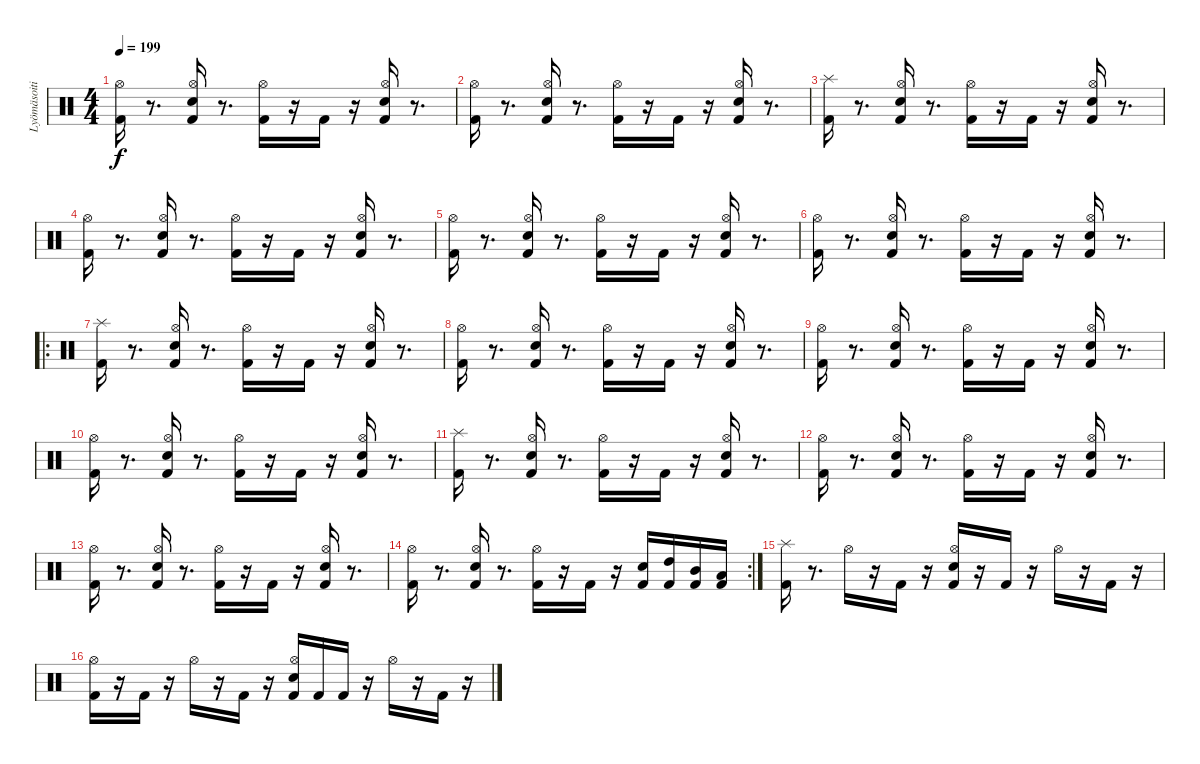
\track ("Lyömäsoitin" "Lyömäsoiti") {instrument percussion}
\staff {score}
\articulation defaults
\ts (4 4)
\tempo 199
\clef neutral
\ks c
("Kick (hit) 2" "Hi-Hat (open)").16{dy f} r.8{d} ("Kick (hit) 2" "Hi-Hat (open)" "Snare (hit) 2").16 r.8{d} ("Kick (hit) 2" "Hi-Hat (open)").16 r.16 "Kick (hit) 2".16 r.16 ("Kick (hit) 2" "Hi-Hat (open)" "Snare (hit) 2").16 r.8{d} |
("Kick (hit) 2" "Hi-Hat (open)").16 r.8{d} ("Kick (hit) 2" "Hi-Hat (open)" "Snare (hit) 2").16 r.8{d} ("Kick (hit) 2" "Hi-Hat (open)").16 r.16 "Kick (hit) 2".16 r.16 ("Kick (hit) 2" "Hi-Hat (open)" "Snare (hit) 2").16 r.8{d} |
("Kick (hit) 2" "Splash (hit)").16 r.8{d} ("Kick (hit) 2" "Hi-Hat (open)" "Snare (hit) 2").16 r.8{d} ("Kick (hit) 2" "Hi-Hat (open)").16 r.16 "Kick (hit) 2".16 r.16 ("Kick (hit) 2" "Hi-Hat (open)" "Snare (hit) 2").16 r.8{d} |
("Kick (hit) 2" "Hi-Hat (open)").16 r.8{d} ("Kick (hit) 2" "Hi-Hat (open)" "Snare (hit) 2").16 r.8{d} ("Kick (hit) 2" "Hi-Hat (open)").16 r.16 "Kick (hit) 2".16 r.16 ("Kick (hit) 2" "Hi-Hat (open)" "Snare (hit) 2").16 r.8{d} |
("Kick (hit) 2" "Hi-Hat (open)").16 r.8{d} ("Kick (hit) 2" "Hi-Hat (open)" "Snare (hit) 2").16 r.8{d} ("Kick (hit) 2" "Hi-Hat (open)").16 r.16 "Kick (hit) 2".16 r.16 ("Kick (hit) 2" "Hi-Hat (open)" "Snare (hit) 2").16 r.8{d} |
("Kick (hit) 2" "Hi-Hat (open)").16 r.8{d} ("Kick (hit) 2" "Hi-Hat (open)" "Snare (hit) 2").16 r.8{d} ("Kick (hit) 2" "Hi-Hat (open)").16 r.16 "Kick (hit) 2".16 r.16 ("Kick (hit) 2" "Hi-Hat (open)" "Snare (hit) 2").16 r.8{d} |
\ro
("Kick (hit) 2" "Splash (hit)").16 r.8{d} ("Kick (hit) 2" "Hi-Hat (open)" "Snare (hit) 2").16 r.8{d} ("Kick (hit) 2" "Hi-Hat (open)").16 r.16 "Kick (hit) 2".16 r.16 ("Kick (hit) 2" "Hi-Hat (open)" "Snare (hit) 2").16 r.8{d} |
("Kick (hit) 2" "Hi-Hat (open)").16 r.8{d} ("Kick (hit) 2" "Hi-Hat (open)" "Snare (hit) 2").16 r.8{d} ("Kick (hit) 2" "Hi-Hat (open)").16 r.16 "Kick (hit) 2".16 r.16 ("Kick (hit) 2" "Hi-Hat (open)" "Snare (hit) 2").16 r.8{d} |
("Kick (hit) 2" "Hi-Hat (open)").16 r.8{d} ("Kick (hit) 2" "Hi-Hat (open)" "Snare (hit) 2").16 r.8{d} ("Kick (hit) 2" "Hi-Hat (open)").16 r.16 "Kick (hit) 2".16 r.16 ("Kick (hit) 2" "Hi-Hat (open)" "Snare (hit) 2").16 r.8{d} |
("Kick (hit) 2" "Hi-Hat (open)").16 r.8{d} ("Kick (hit) 2" "Hi-Hat (open)" "Snare (hit) 2").16 r.8{d} ("Kick (hit) 2" "Hi-Hat (open)").16 r.16 "Kick (hit) 2".16 r.16 ("Kick (hit) 2" "Hi-Hat (open)" "Snare (hit) 2").16 r.8{d} |
("Kick (hit) 2" "Splash (hit)").16 r.8{d} ("Kick (hit) 2" "Hi-Hat (open)" "Snare (hit) 2").16 r.8{d} ("Kick (hit) 2" "Hi-Hat (open)").16 r.16 "Kick (hit) 2".16 r.16 ("Kick (hit) 2" "Hi-Hat (open)" "Snare (hit) 2").16 r.8{d} |
("Kick (hit) 2" "Hi-Hat (open)").16 r.8{d} ("Kick (hit) 2" "Hi-Hat (open)" "Snare (hit) 2").16 r.8{d} ("Kick (hit) 2" "Hi-Hat (open)").16 r.16 "Kick (hit) 2".16 r.16 ("Kick (hit) 2" "Hi-Hat (open)" "Snare (hit) 2").16 r.8{d} |
("Kick (hit) 2" "Hi-Hat (open)").16 r.8{d} ("Kick (hit) 2" "Hi-Hat (open)" "Snare (hit) 2").16 r.8{d} ("Kick (hit) 2" "Hi-Hat (open)").16 r.16 "Kick (hit) 2".16 r.16 ("Kick (hit) 2" "Hi-Hat (open)" "Snare (hit) 2").16 r.8{d} |
\rc 2
("Kick (hit) 2" "Hi-Hat (open)").16 r.8{d} ("Kick (hit) 2" "Hi-Hat (open)" "Snare (hit) 2").16 r.8{d} ("Kick (hit) 2" "Hi-Hat (open)").16 r.16 "Kick (hit) 2".16 r.16 ("Kick (hit) 2" "Snare (hit) 2").16 ("Kick (hit) 2" "High Tom (hit)").16 ("Kick (hit) 2" "Mid Tom (hit)").16 ("Kick (hit) 2" "Low Tom (hit)").16 |
("Kick (hit) 2" "Splash (hit)").16 r.8{d} "Hi-Hat (open)".16 r.16 "Kick (hit) 2".16 r.16 ("Kick (hit) 2" "Hi-Hat (open)" "Snare (hit) 2").16 r.16 "Kick (hit) 2".16 r.16 "Hi-Hat (open)".16 r.16 "Kick (hit) 2".16 r.16 |
("Kick (hit) 2" "Hi-Hat (open)").16 r.16 "Kick (hit) 2".16 r.16 "Hi-Hat (open)".16 r.16 "Kick (hit) 2".16 r.16 ("Kick (hit) 2" "Hi-Hat (open)" "Snare (hit) 2").16 "Kick (hit) 2".16 "Kick (hit) 2".16 r.16 "Hi-Hat (open)".16 r.16 "Kick (hit) 2".16 r.16
